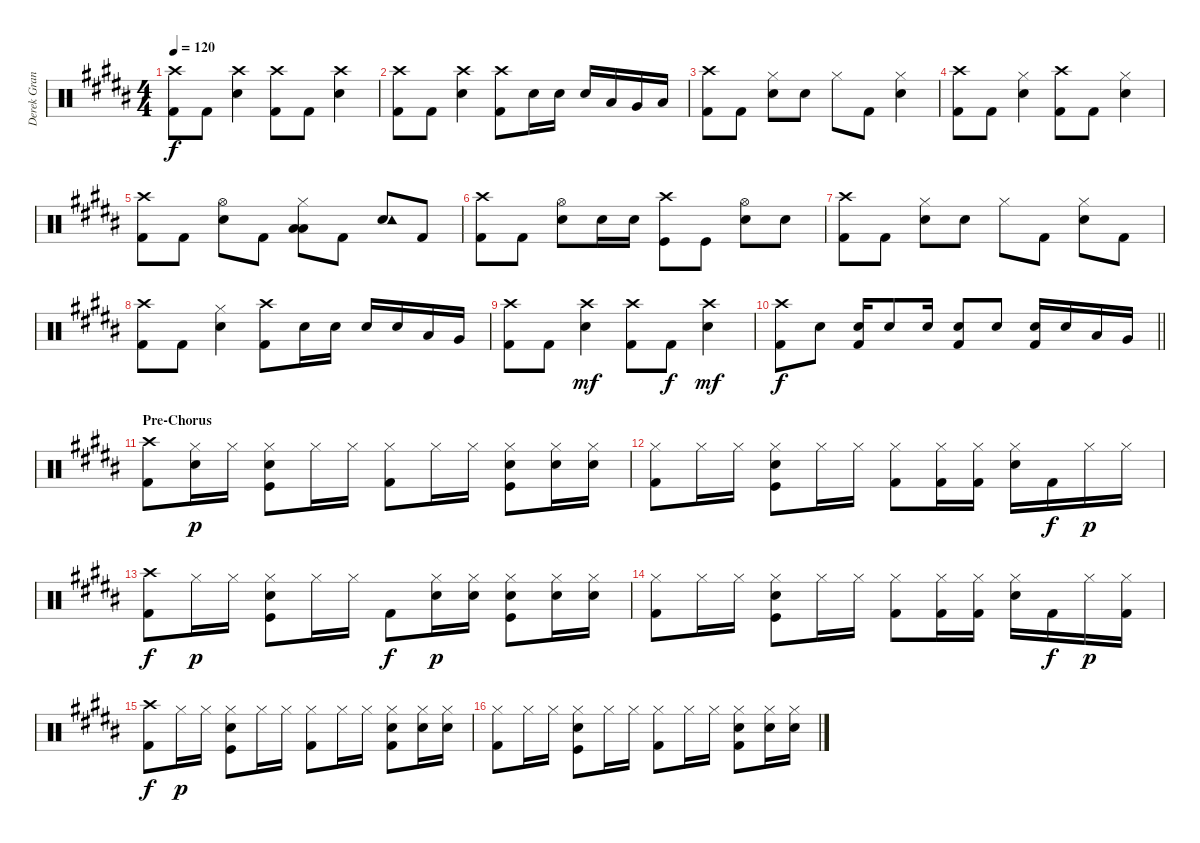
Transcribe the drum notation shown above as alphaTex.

\track ("Derek Grant - Drums" "Derek Gran") {instrument percussion}
\staff {score}
\articulation defaults
\ts (4 4)
\tempo 120
\clef neutral
\ks b
("Kick (hit) 2" "Crash high (hit)").8{dy f} "Kick (hit) 2".8 ("Snare (hit) 2" "Crash high (hit)").4 ("Kick (hit) 2" "Crash high (hit)").8 "Kick (hit) 2".8 ("Snare (hit) 2" "Crash high (hit)").4 |
("Kick (hit) 2" "Crash high (hit)").8 "Kick (hit) 2".8 ("Snare (hit) 2" "Crash high (hit)").4 ("Kick (hit) 2" "Crash high (hit)").8 "Snare (hit) 2".16 "Snare (hit) 2".16 "Snare (hit) 2".16 "Low Tom (hit)".16 "Very Low Tom (hit)".16 "Low Floor Tom (hit)".16 |
("Kick (hit) 2" "Crash high (hit)").8 "Kick (hit) 2".8 ("Snare (hit) 2" "Hi-Hat (closed)").8 "Snare (hit) 2".8 "Hi-Hat (closed)".8 "Kick (hit) 2".8 ("Snare (hit) 2" "Hi-Hat (closed)").4 |
("Kick (hit) 2" "Crash high (hit)").8 "Kick (hit) 2".8 ("Snare (hit) 2" "Hi-Hat (closed)").4 ("Kick (hit) 2" "Crash high (hit)").8 "Kick (hit) 2".8 ("Snare (hit) 2" "Hi-Hat (closed)").4 |
("Kick (hit) 2" "Crash high (hit)").8 "Kick (hit) 2".8 ("Snare (hit) 2" "Hi-Hat (open)").8 "Kick (hit) 2".8 ("Low Floor Tom (hit)" "Low Tom (hit)" "Hi-Hat (closed)").8 "Kick (hit) 2".8 ("Snare (hit) 2" "Tambourine (hit)").8 "Kick (hit) 2".8 |
("Kick (hit) 2" "Crash high (hit)").8 "Kick (hit) 2".8 ("Snare (hit) 2" "Hi-Hat (open)").8 "Snare (hit) 2".16 "Snare (hit) 2".16 ("Kick (hit)" "Crash high (hit)").8 "Kick (hit)".8 ("Snare (hit) 2" "Hi-Hat (open)").8 "Snare (hit) 2".8 |
("Kick (hit) 2" "Crash high (hit)").8 "Kick (hit) 2".8 ("Snare (hit) 2" "Hi-Hat (closed)").8 "Snare (hit) 2".8 "Hi-Hat (closed)".8 "Kick (hit) 2".8 ("Snare (hit) 2" "Hi-Hat (closed)").8 "Kick (hit) 2".8 |
("Kick (hit) 2" "Crash high (hit)").8 "Kick (hit) 2".8 ("Snare (hit) 2" "Hi-Hat (closed)").4 ("Kick (hit) 2" "Crash high (hit)").8 "Snare (hit) 2".16 "Snare (hit) 2".16 "Snare (hit) 2".16 "Snare (hit) 2".16 "Low Tom (hit)".16 "Very Low Tom (hit)".16 |
("Kick (hit) 2" "Crash high (hit)").8 "Kick (hit) 2".8 ("Snare (hit) 2" "Crash high (hit)").4{dy mf} ("Kick (hit) 2" "Crash high (hit)").8 "Kick (hit) 2".8{dy f} ("Snare (hit) 2" "Crash high (hit)").4{dy mf} |
\barLineRight lightlight
("Kick (hit) 2" "Crash high (hit)").8{dy f} "Snare (hit) 2".8 ("Snare (hit) 2" "Kick (hit) 2").16 "Snare (hit) 2".8 "Snare (hit) 2".16 ("Snare (hit) 2" "Kick (hit) 2").8 "Snare (hit) 2".8 ("Snare (hit) 2" "Kick (hit) 2").16 "Snare (hit) 2".16 "Low Tom (hit)".16 "Very Low Tom (hit)".16 |
\section ("" "Pre-Chorus")
("Kick (hit) 2" "Crash high (hit)").8 ("Snare (hit) 2" "Hi-Hat (closed)").16{dy p} "Hi-Hat (closed)".16 ("Snare (hit) 2" "Kick (hit)" "Hi-Hat (closed)").8 "Hi-Hat (closed)".16 "Hi-Hat (closed)".16 ("Kick (hit) 2" "Hi-Hat (closed)").8 "Hi-Hat (closed)".16 "Hi-Hat (closed)".16 ("Snare (hit) 2" "Kick (hit)" "Hi-Hat (closed)").8 ("Snare (hit) 2" "Hi-Hat (closed)").16 ("Snare (hit) 2" "Hi-Hat (closed)").16 |
("Kick (hit) 2" "Hi-Hat (closed)").8 "Hi-Hat (closed)".16 "Hi-Hat (closed)".16 ("Snare (hit) 2" "Kick (hit)" "Hi-Hat (closed)").8 "Hi-Hat (closed)".16 "Hi-Hat (closed)".16 ("Kick (hit) 2" "Hi-Hat (closed)").8 ("Kick (hit) 2" "Hi-Hat (closed)").16 ("Kick (hit) 2" "Hi-Hat (closed)").16 ("Snare (hit) 2" "Hi-Hat (closed)").16 "Kick (hit) 2".16{dy f} "Hi-Hat (closed)".16{dy p} "Hi-Hat (closed)".16 |
("Kick (hit) 2" "Crash high (hit)").8{dy f} "Hi-Hat (closed)".16{dy p} "Hi-Hat (closed)".16 ("Snare (hit) 2" "Kick (hit)" "Hi-Hat (closed)").8 "Hi-Hat (closed)".16 "Hi-Hat (closed)".16 "Kick (hit) 2".8{dy f} ("Snare (hit) 2" "Hi-Hat (closed)").16{dy p} ("Snare (hit) 2" "Hi-Hat (closed)").16 ("Snare (hit) 2" "Kick (hit)" "Hi-Hat (closed)").8 ("Snare (hit) 2" "Hi-Hat (closed)").16 ("Snare (hit) 2" "Hi-Hat (closed)").16 |
("Kick (hit) 2" "Hi-Hat (closed)").8 "Hi-Hat (closed)".16 "Hi-Hat (closed)".16 ("Snare (hit) 2" "Kick (hit)" "Hi-Hat (closed)").8 "Hi-Hat (closed)".16 "Hi-Hat (closed)".16 ("Kick (hit) 2" "Hi-Hat (closed)").8 ("Kick (hit) 2" "Hi-Hat (closed)").16 ("Kick (hit) 2" "Hi-Hat (closed)").16 ("Snare (hit) 2" "Hi-Hat (closed)").16 "Kick (hit) 2".16{dy f} "Hi-Hat (closed)".16{dy p} ("Hi-Hat (closed)" "Kick (hit) 2").16 |
("Kick (hit) 2" "Crash high (hit)").8{dy f} "Hi-Hat (closed)".16{dy p} "Hi-Hat (closed)".16 ("Snare (hit) 2" "Kick (hit)" "Hi-Hat (closed)").8 "Hi-Hat (closed)".16 "Hi-Hat (closed)".16 ("Kick (hit) 2" "Hi-Hat (closed)").8 "Hi-Hat (closed)".16 "Hi-Hat (closed)".16 ("Kick (hit) 2" "Snare (hit) 2" "Hi-Hat (closed)").8 ("Snare (hit) 2" "Hi-Hat (closed)").16 ("Snare (hit) 2" "Hi-Hat (closed)").16 |
("Kick (hit) 2" "Hi-Hat (closed)").8 "Hi-Hat (closed)".16 "Hi-Hat (closed)".16 ("Snare (hit) 2" "Kick (hit)" "Hi-Hat (closed)").8 "Hi-Hat (closed)".16 "Hi-Hat (closed)".16 ("Kick (hit) 2" "Hi-Hat (closed)").8 "Hi-Hat (closed)".16 "Hi-Hat (closed)".16 ("Kick (hit) 2" "Snare (hit) 2" "Hi-Hat (closed)").8 ("Snare (hit) 2" "Hi-Hat (closed)").16 ("Snare (hit) 2" "Hi-Hat (closed)").16
